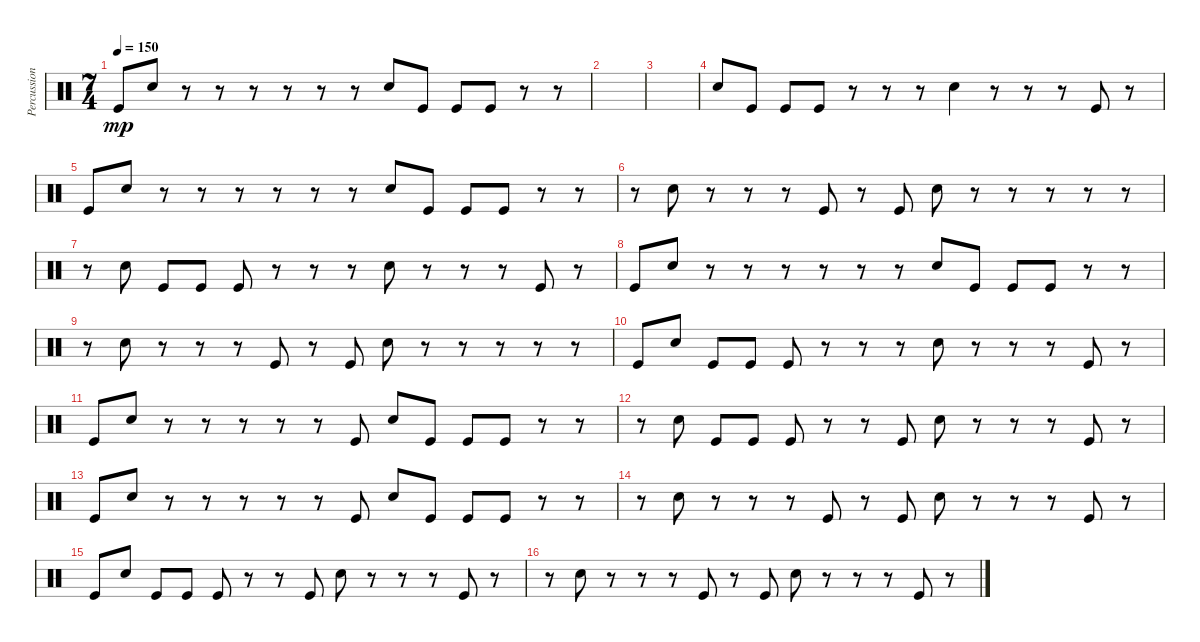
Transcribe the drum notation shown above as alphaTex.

\track ("Percussion" "Percussion") {instrument percussion}
\staff {score}
\articulation defaults
\ts (7 4)
\tempo 150
\clef neutral
\ks c "Kick (hit)".8{dy mp} "Electric Snare (hit)".8
r.8 r.8 r.8 r.8 r.8 r.8 "Electric Snare (hit)".8 "Kick (hit)".8 "Kick (hit)".8 "Kick (hit)".8 r.8 r.8 |
|
|
"Electric Snare (hit)".8 "Kick (hit)".8 "Kick (hit)".8 "Kick (hit)".8 r.8 r.8 r.8 "Electric Snare (hit)".4 r.8 r.8 r.8 "Kick (hit)".8 r.8 |
"Kick (hit)".8 "Electric Snare (hit)".8 r.8 r.8 r.8 r.8 r.8 r.8 "Electric Snare (hit)".8 "Kick (hit)".8 "Kick (hit)".8 "Kick (hit)".8 r.8 r.8 |
r.8 "Electric Snare (hit)".8 r.8 r.8 r.8 "Kick (hit)".8 r.8 "Kick (hit)".8 "Electric Snare (hit)".8 r.8 r.8 r.8 r.8 r.8 |
r.8 "Electric Snare (hit)".8 "Kick (hit)".8 "Kick (hit)".8 "Kick (hit)".8 r.8 r.8 r.8 "Electric Snare (hit)".8 r.8 r.8 r.8 "Kick (hit)".8 r.8 |
"Kick (hit)".8 "Electric Snare (hit)".8 r.8 r.8 r.8 r.8 r.8 r.8 "Electric Snare (hit)".8 "Kick (hit)".8 "Kick (hit)".8 "Kick (hit)".8 r.8 r.8 |
r.8 "Electric Snare (hit)".8 r.8 r.8 r.8 "Kick (hit)".8 r.8 "Kick (hit)".8 "Electric Snare (hit)".8 r.8 r.8 r.8 r.8 r.8 |
"Kick (hit)".8 "Electric Snare (hit)".8 "Kick (hit)".8 "Kick (hit)".8 "Kick (hit)".8 r.8 r.8 r.8 "Electric Snare (hit)".8 r.8 r.8 r.8 "Kick (hit)".8 r.8 |
"Kick (hit)".8 "Electric Snare (hit)".8 r.8 r.8 r.8 r.8 r.8 "Kick (hit)".8 "Electric Snare (hit)".8 "Kick (hit)".8 "Kick (hit)".8 "Kick (hit)".8 r.8 r.8 |
r.8 "Electric Snare (hit)".8 "Kick (hit)".8 "Kick (hit)".8 "Kick (hit)".8 r.8 r.8 "Kick (hit)".8 "Electric Snare (hit)".8 r.8 r.8 r.8 "Kick (hit)".8 r.8 |
"Kick (hit)".8 "Electric Snare (hit)".8 r.8 r.8 r.8 r.8 r.8 "Kick (hit)".8 "Electric Snare (hit)".8 "Kick (hit)".8 "Kick (hit)".8 "Kick (hit)".8 r.8 r.8 |
r.8 "Electric Snare (hit)".8 r.8 r.8 r.8 "Kick (hit)".8 r.8 "Kick (hit)".8 "Electric Snare (hit)".8 r.8 r.8 r.8 "Kick (hit)".8 r.8 |
"Kick (hit)".8 "Electric Snare (hit)".8 "Kick (hit)".8 "Kick (hit)".8 "Kick (hit)".8 r.8 r.8 "Kick (hit)".8 "Electric Snare (hit)".8 r.8 r.8 r.8 "Kick (hit)".8 r.8 |
r.8 "Electric Snare (hit)".8 r.8 r.8 r.8 "Kick (hit)".8 r.8 "Kick (hit)".8 "Electric Snare (hit)".8 r.8 r.8 r.8 "Kick (hit)".8 r.8
